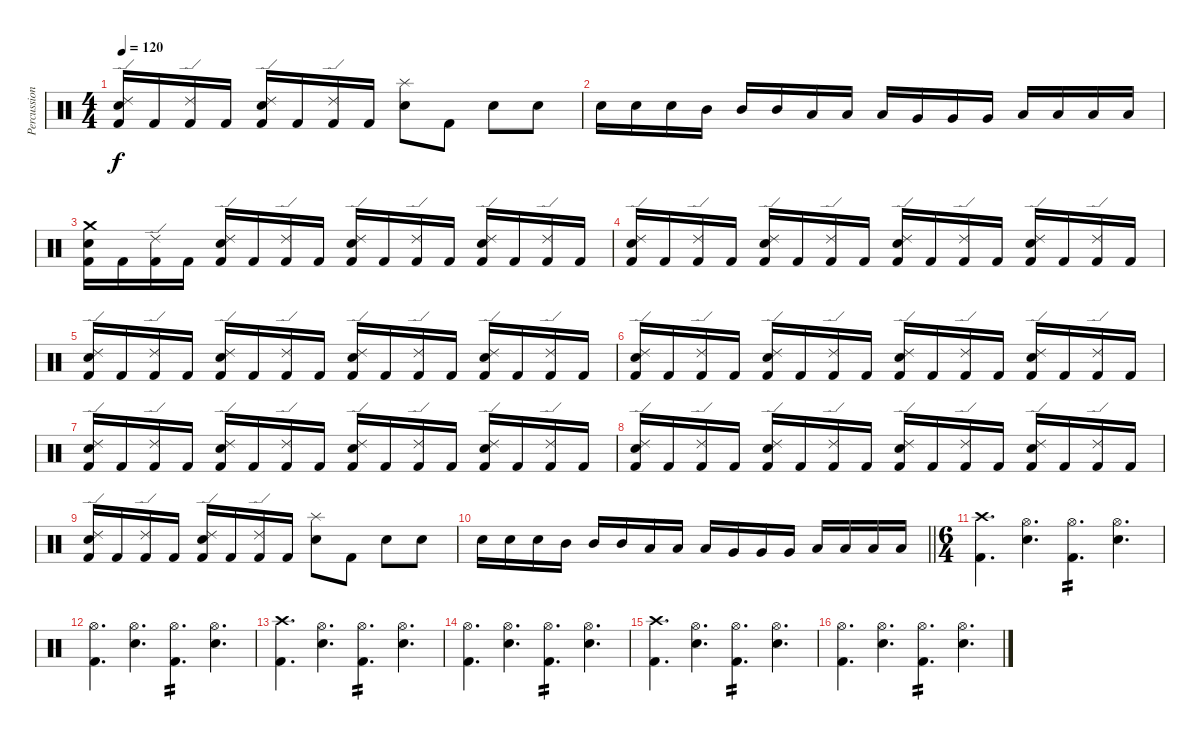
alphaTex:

\track ("Percussion" "Percussion") {instrument percussion}
\staff {score}
\articulation defaults
\ts (4 4)
\tempo 120
\clef neutral
\ks c
("Ride (edge) 2" "Electric Snare (hit)" "Kick (hit) 2").16{dy f} "Kick (hit) 2".16 ("Ride (edge) 2" "Kick (hit) 2").16 "Kick (hit) 2".16 ("Ride (edge) 2" "Electric Snare (hit)" "Kick (hit) 2").16 "Kick (hit) 2".16 ("Ride (edge) 2" "Kick (hit) 2").16 "Kick (hit) 2".16 ("Splash (hit)" "Electric Snare (hit)").8 "Kick (hit) 2".8 "Electric Snare (hit)".8 "Electric Snare (hit)".8 |
"Electric Snare (hit)".16 "Electric Snare (hit)".16 "Electric Snare (hit)".16 "Mid Tom (hit)".16 "Mid Tom (hit)".16 "Mid Tom (hit)".16 "Low Tom (hit)".16 "Low Tom (hit)".16 "Low Tom (hit)".16 "Very Low Tom (hit)".16 "Very Low Tom (hit)".16 "Very Low Tom (hit)".16 "Low Floor Tom (hit)".16 "Low Floor Tom (hit)".16 "Low Floor Tom (hit)".16 "Low Floor Tom (hit)".16 |
("Crash medium (hit)" "Electric Snare (hit)" "Kick (hit) 2").16 "Kick (hit) 2".16 ("Ride (edge) 2" "Kick (hit) 2").16 "Kick (hit) 2".16 ("Ride (edge) 2" "Electric Snare (hit)" "Kick (hit) 2").16 "Kick (hit) 2".16 ("Ride (edge) 2" "Kick (hit) 2").16 "Kick (hit) 2".16 ("Ride (edge) 2" "Electric Snare (hit)" "Kick (hit) 2").16 "Kick (hit) 2".16 ("Ride (edge) 2" "Kick (hit) 2").16 "Kick (hit) 2".16 ("Ride (edge) 2" "Electric Snare (hit)" "Kick (hit) 2").16 "Kick (hit) 2".16 ("Ride (edge) 2" "Kick (hit) 2").16 "Kick (hit) 2".16 |
("Ride (edge) 2" "Electric Snare (hit)" "Kick (hit) 2").16 "Kick (hit) 2".16 ("Ride (edge) 2" "Kick (hit) 2").16 "Kick (hit) 2".16 ("Ride (edge) 2" "Electric Snare (hit)" "Kick (hit) 2").16 "Kick (hit) 2".16 ("Ride (edge) 2" "Kick (hit) 2").16 "Kick (hit) 2".16 ("Ride (edge) 2" "Electric Snare (hit)" "Kick (hit) 2").16 "Kick (hit) 2".16 ("Ride (edge) 2" "Kick (hit) 2").16 "Kick (hit) 2".16 ("Ride (edge) 2" "Electric Snare (hit)" "Kick (hit) 2").16 "Kick (hit) 2".16 ("Ride (edge) 2" "Kick (hit) 2").16 "Kick (hit) 2".16 |
("Ride (edge) 2" "Electric Snare (hit)" "Kick (hit) 2").16 "Kick (hit) 2".16 ("Ride (edge) 2" "Kick (hit) 2").16 "Kick (hit) 2".16 ("Ride (edge) 2" "Electric Snare (hit)" "Kick (hit) 2").16 "Kick (hit) 2".16 ("Ride (edge) 2" "Kick (hit) 2").16 "Kick (hit) 2".16 ("Ride (edge) 2" "Electric Snare (hit)" "Kick (hit) 2").16 "Kick (hit) 2".16 ("Ride (edge) 2" "Kick (hit) 2").16 "Kick (hit) 2".16 ("Ride (edge) 2" "Electric Snare (hit)" "Kick (hit) 2").16 "Kick (hit) 2".16 ("Ride (edge) 2" "Kick (hit) 2").16 "Kick (hit) 2".16 |
("Ride (edge) 2" "Electric Snare (hit)" "Kick (hit) 2").16 "Kick (hit) 2".16 ("Ride (edge) 2" "Kick (hit) 2").16 "Kick (hit) 2".16 ("Ride (edge) 2" "Electric Snare (hit)" "Kick (hit) 2").16 "Kick (hit) 2".16 ("Ride (edge) 2" "Kick (hit) 2").16 "Kick (hit) 2".16 ("Ride (edge) 2" "Electric Snare (hit)" "Kick (hit) 2").16 "Kick (hit) 2".16 ("Ride (edge) 2" "Kick (hit) 2").16 "Kick (hit) 2".16 ("Ride (edge) 2" "Electric Snare (hit)" "Kick (hit) 2").16 "Kick (hit) 2".16 ("Ride (edge) 2" "Kick (hit) 2").16 "Kick (hit) 2".16 |
("Ride (edge) 2" "Electric Snare (hit)" "Kick (hit) 2").16 "Kick (hit) 2".16 ("Ride (edge) 2" "Kick (hit) 2").16 "Kick (hit) 2".16 ("Ride (edge) 2" "Electric Snare (hit)" "Kick (hit) 2").16 "Kick (hit) 2".16 ("Ride (edge) 2" "Kick (hit) 2").16 "Kick (hit) 2".16 ("Ride (edge) 2" "Electric Snare (hit)" "Kick (hit) 2").16 "Kick (hit) 2".16 ("Ride (edge) 2" "Kick (hit) 2").16 "Kick (hit) 2".16 ("Ride (edge) 2" "Electric Snare (hit)" "Kick (hit) 2").16 "Kick (hit) 2".16 ("Ride (edge) 2" "Kick (hit) 2").16 "Kick (hit) 2".16 |
("Ride (edge) 2" "Electric Snare (hit)" "Kick (hit) 2").16 "Kick (hit) 2".16 ("Ride (edge) 2" "Kick (hit) 2").16 "Kick (hit) 2".16 ("Ride (edge) 2" "Electric Snare (hit)" "Kick (hit) 2").16 "Kick (hit) 2".16 ("Ride (edge) 2" "Kick (hit) 2").16 "Kick (hit) 2".16 ("Ride (edge) 2" "Electric Snare (hit)" "Kick (hit) 2").16 "Kick (hit) 2".16 ("Ride (edge) 2" "Kick (hit) 2").16 "Kick (hit) 2".16 ("Ride (edge) 2" "Electric Snare (hit)" "Kick (hit) 2").16 "Kick (hit) 2".16 ("Ride (edge) 2" "Kick (hit) 2").16 "Kick (hit) 2".16 |
("Ride (edge) 2" "Electric Snare (hit)" "Kick (hit) 2").16 "Kick (hit) 2".16 ("Ride (edge) 2" "Kick (hit) 2").16 "Kick (hit) 2".16 ("Ride (edge) 2" "Electric Snare (hit)" "Kick (hit) 2").16 "Kick (hit) 2".16 ("Ride (edge) 2" "Kick (hit) 2").16 "Kick (hit) 2".16 ("Splash (hit)" "Electric Snare (hit)").8 "Kick (hit) 2".8 "Electric Snare (hit)".8 "Electric Snare (hit)".8 |
\barLineRight lightlight "Electric Snare (hit)".16 "Electric Snare (hit)".16 "Electric Snare (hit)".16 "Mid Tom (hit)".16 "Mid Tom (hit)".16 "Mid Tom (hit)".16 "Low Tom (hit)".16 "Low Tom (hit)".16 "Low Tom (hit)".16 "Very Low Tom (hit)".16 "Very Low Tom (hit)".16 "Very Low Tom (hit)".16 "Low Floor Tom (hit)".16 "Low Floor Tom (hit)".16 "Low Floor Tom (hit)".16 "Low Floor Tom (hit)".16
|
\ts (6 4)
("Crash high (hit)" "Kick (hit) 2").4{d} ("Hi-Hat (open)" "Electric Snare (hit)").4{d} ("Hi-Hat (open)" "Kick (hit) 2").4{d tp 2} ("Hi-Hat (open)" "Electric Snare (hit)").4{d} |
("Hi-Hat (open)" "Kick (hit) 2").4{d} ("Hi-Hat (open)" "Electric Snare (hit)").4{d} ("Hi-Hat (open)" "Kick (hit) 2").4{d tp 2} ("Hi-Hat (open)" "Electric Snare (hit)").4{d} |
("Crash high (hit)" "Kick (hit) 2").4{d} ("Hi-Hat (open)" "Electric Snare (hit)").4{d} ("Hi-Hat (open)" "Kick (hit) 2").4{d tp 2} ("Hi-Hat (open)" "Electric Snare (hit)").4{d} |
("Hi-Hat (open)" "Kick (hit) 2").4{d} ("Hi-Hat (open)" "Electric Snare (hit)").4{d} ("Hi-Hat (open)" "Kick (hit) 2").4{d tp 2} ("Hi-Hat (open)" "Electric Snare (hit)").4{d} |
("Crash high (hit)" "Kick (hit) 2").4{d} ("Hi-Hat (open)" "Electric Snare (hit)").4{d} ("Hi-Hat (open)" "Kick (hit) 2").4{d tp 2} ("Hi-Hat (open)" "Electric Snare (hit)").4{d} |
("Hi-Hat (open)" "Kick (hit) 2").4{d} ("Hi-Hat (open)" "Electric Snare (hit)").4{d} ("Hi-Hat (open)" "Kick (hit) 2").4{d tp 2} ("Hi-Hat (open)" "Electric Snare (hit)").4{d}
